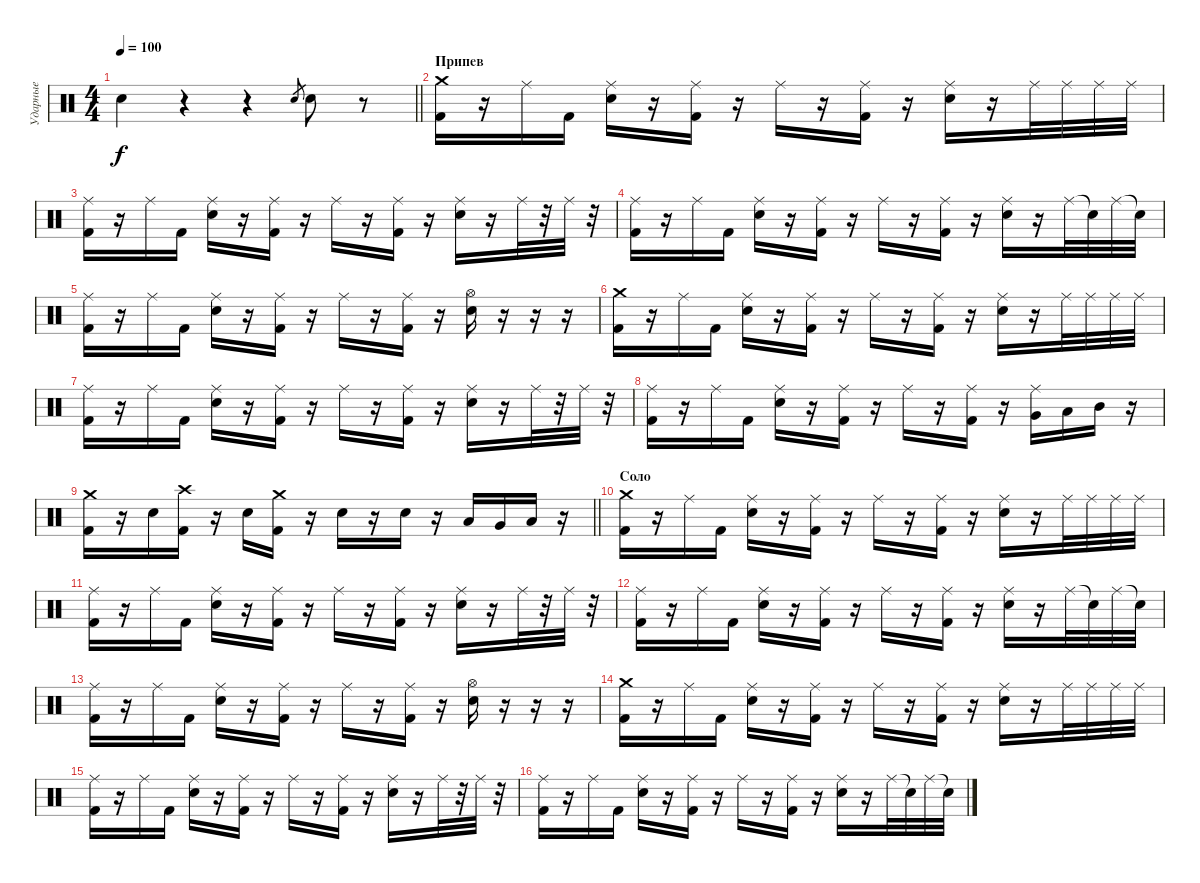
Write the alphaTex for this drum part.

\track ("Ударные" "Ударные") {instrument percussion}
\staff {score}
\articulation defaults
\ts (4 4)
\tempo 100
\clef neutral
\barLineRight lightlight
\ks c "Snare (hit) 2".4{dy f}
r.4 r.4 "Snare (hit) 2".8{gr} "Snare (hit) 2".8 r.8 |
\section ("" "Припев")
("Crash medium (hit)" "Kick (hit) 2").16 r.16 "Ride (middle)".16 "Kick (hit) 2".16 ("Ride (middle)" "Snare (hit) 2").16 r.16 ("Ride (middle)" "Kick (hit) 2").16 r.16 "Ride (middle)".16 r.16 ("Ride (middle)" "Kick (hit) 2").16 r.16 ("Ride (middle)" "Snare (hit) 2").16 r.16 "Ride (middle)".32 "Ride (middle)".32 "Ride (middle)".32 "Ride (middle)".32 |
("Ride (middle)" "Kick (hit) 2").16 r.16 "Ride (middle)".16 "Kick (hit) 2".16 ("Ride (middle)" "Snare (hit) 2").16 r.16 ("Ride (middle)" "Kick (hit) 2").16 r.16 "Ride (middle)".16 r.16 ("Ride (middle)" "Kick (hit) 2").16 r.16 ("Ride (middle)" "Snare (hit) 2").16 r.16 "Ride (middle)".32 r.32 "Ride (middle)".32 r.32 |
("Ride (middle)" "Kick (hit) 2").16 r.16 "Ride (middle)".16 "Kick (hit) 2".16 ("Ride (middle)" "Snare (hit) 2").16 r.16 ("Ride (middle)" "Kick (hit) 2").16 r.16 "Ride (middle)".16 r.16 ("Ride (middle)" "Kick (hit) 2").16 r.16 ("Ride (middle)" "Snare (hit) 2").16 r.16 "Ride (middle)".32 "Snare (hit)"{t}.32 "Ride (middle)".32 "Snare (hit)"{t}.32 |
("Ride (middle)" "Kick (hit) 2").16 r.16 "Ride (middle)".16 "Kick (hit) 2".16 ("Ride (middle)" "Snare (hit) 2").16 r.16 ("Ride (middle)" "Kick (hit) 2").16 r.16 "Ride (middle)".16 r.16 ("Ride (middle)" "Kick (hit) 2").16 r.16 ("Hi-Hat (open)" "Snare (hit) 2").16 r.16 r.16 r.16 |
("Crash medium (hit)" "Kick (hit) 2").16 r.16 "Ride (middle)".16 "Kick (hit) 2".16 ("Ride (middle)" "Snare (hit) 2").16 r.16 ("Ride (middle)" "Kick (hit) 2").16 r.16 "Ride (middle)".16 r.16 ("Ride (middle)" "Kick (hit) 2").16 r.16 ("Ride (middle)" "Snare (hit) 2").16 r.16 "Ride (middle)".32 "Ride (middle)".32 "Ride (middle)".32 "Ride (middle)".32 |
("Ride (middle)" "Kick (hit) 2").16 r.16 "Ride (middle)".16 "Kick (hit) 2".16 ("Ride (middle)" "Snare (hit) 2").16 r.16 ("Ride (middle)" "Kick (hit) 2").16 r.16 "Ride (middle)".16 r.16 ("Ride (middle)" "Kick (hit) 2").16 r.16 ("Ride (middle)" "Snare (hit) 2").16 r.16 "Ride (middle)".32 r.32 "Ride (middle)".32 r.32 |
("Ride (middle)" "Kick (hit) 2").16 r.16 "Ride (middle)".16 "Kick (hit) 2".16 ("Ride (middle)" "Snare (hit) 2").16 r.16 ("Ride (middle)" "Kick (hit) 2").16 r.16 "Ride (middle)".16 r.16 ("Ride (middle)" "Kick (hit) 2").16 r.16 ("Ride (middle)" "Very Low Tom (hit)").16 "Low Tom (hit)".16 "Mid Tom (hit)".16 r.16 |
\barLineRight lightlight
("Crash medium (hit)" "Kick (hit) 2").16 r.16 "Snare (hit) 2".16 ("Crash high (hit)" "Kick (hit) 2").16 r.16 "Snare (hit) 2".16 ("Crash medium (hit)" "Kick (hit) 2").16 r.16 "Snare (hit) 2".16 r.16 "Snare (hit) 2".16 r.16 "Low Tom (hit)".16 "Very Low Tom (hit)".16 "Low Floor Tom (hit)".16 r.16 |
\section ("" "Соло")
("Crash medium (hit)" "Kick (hit) 2").16 r.16 "Ride (middle)".16 "Kick (hit) 2".16 ("Ride (middle)" "Snare (hit) 2").16 r.16 ("Ride (middle)" "Kick (hit) 2").16 r.16 "Ride (middle)".16 r.16 ("Ride (middle)" "Kick (hit) 2").16 r.16 ("Ride (middle)" "Snare (hit) 2").16 r.16 "Ride (middle)".32 "Ride (middle)".32 "Ride (middle)".32 "Ride (middle)".32 |
("Ride (middle)" "Kick (hit) 2").16 r.16 "Ride (middle)".16 "Kick (hit) 2".16 ("Ride (middle)" "Snare (hit) 2").16 r.16 ("Ride (middle)" "Kick (hit) 2").16 r.16 "Ride (middle)".16 r.16 ("Ride (middle)" "Kick (hit) 2").16 r.16 ("Ride (middle)" "Snare (hit) 2").16 r.16 "Ride (middle)".32 r.32 "Ride (middle)".32 r.32 |
("Ride (middle)" "Kick (hit) 2").16 r.16 "Ride (middle)".16 "Kick (hit) 2".16 ("Ride (middle)" "Snare (hit) 2").16 r.16 ("Ride (middle)" "Kick (hit) 2").16 r.16 "Ride (middle)".16 r.16 ("Ride (middle)" "Kick (hit) 2").16 r.16 ("Ride (middle)" "Snare (hit) 2").16 r.16 "Ride (middle)".32 "Snare (hit)"{t}.32 "Ride (middle)".32 "Snare (hit)"{t}.32 |
("Ride (middle)" "Kick (hit) 2").16 r.16 "Ride (middle)".16 "Kick (hit) 2".16 ("Ride (middle)" "Snare (hit) 2").16 r.16 ("Ride (middle)" "Kick (hit) 2").16 r.16 "Ride (middle)".16 r.16 ("Ride (middle)" "Kick (hit) 2").16 r.16 ("Hi-Hat (open)" "Snare (hit) 2").16 r.16 r.16 r.16 |
("Crash medium (hit)" "Kick (hit) 2").16 r.16 "Ride (middle)".16 "Kick (hit) 2".16 ("Ride (middle)" "Snare (hit) 2").16 r.16 ("Ride (middle)" "Kick (hit) 2").16 r.16 "Ride (middle)".16 r.16 ("Ride (middle)" "Kick (hit) 2").16 r.16 ("Ride (middle)" "Snare (hit) 2").16 r.16 "Ride (middle)".32 "Ride (middle)".32 "Ride (middle)".32 "Ride (middle)".32 |
("Ride (middle)" "Kick (hit) 2").16 r.16 "Ride (middle)".16 "Kick (hit) 2".16 ("Ride (middle)" "Snare (hit) 2").16 r.16 ("Ride (middle)" "Kick (hit) 2").16 r.16 "Ride (middle)".16 r.16 ("Ride (middle)" "Kick (hit) 2").16 r.16 ("Ride (middle)" "Snare (hit) 2").16 r.16 "Ride (middle)".32 r.32 "Ride (middle)".32 r.32 |
("Ride (middle)" "Kick (hit) 2").16 r.16 "Ride (middle)".16 "Kick (hit) 2".16 ("Ride (middle)" "Snare (hit) 2").16 r.16 ("Ride (middle)" "Kick (hit) 2").16 r.16 "Ride (middle)".16 r.16 ("Ride (middle)" "Kick (hit) 2").16 r.16 ("Ride (middle)" "Snare (hit) 2").16 r.16 "Ride (middle)".32 "Snare (hit)"{t}.32 "Ride (middle)".32 "Snare (hit)"{t}.32
